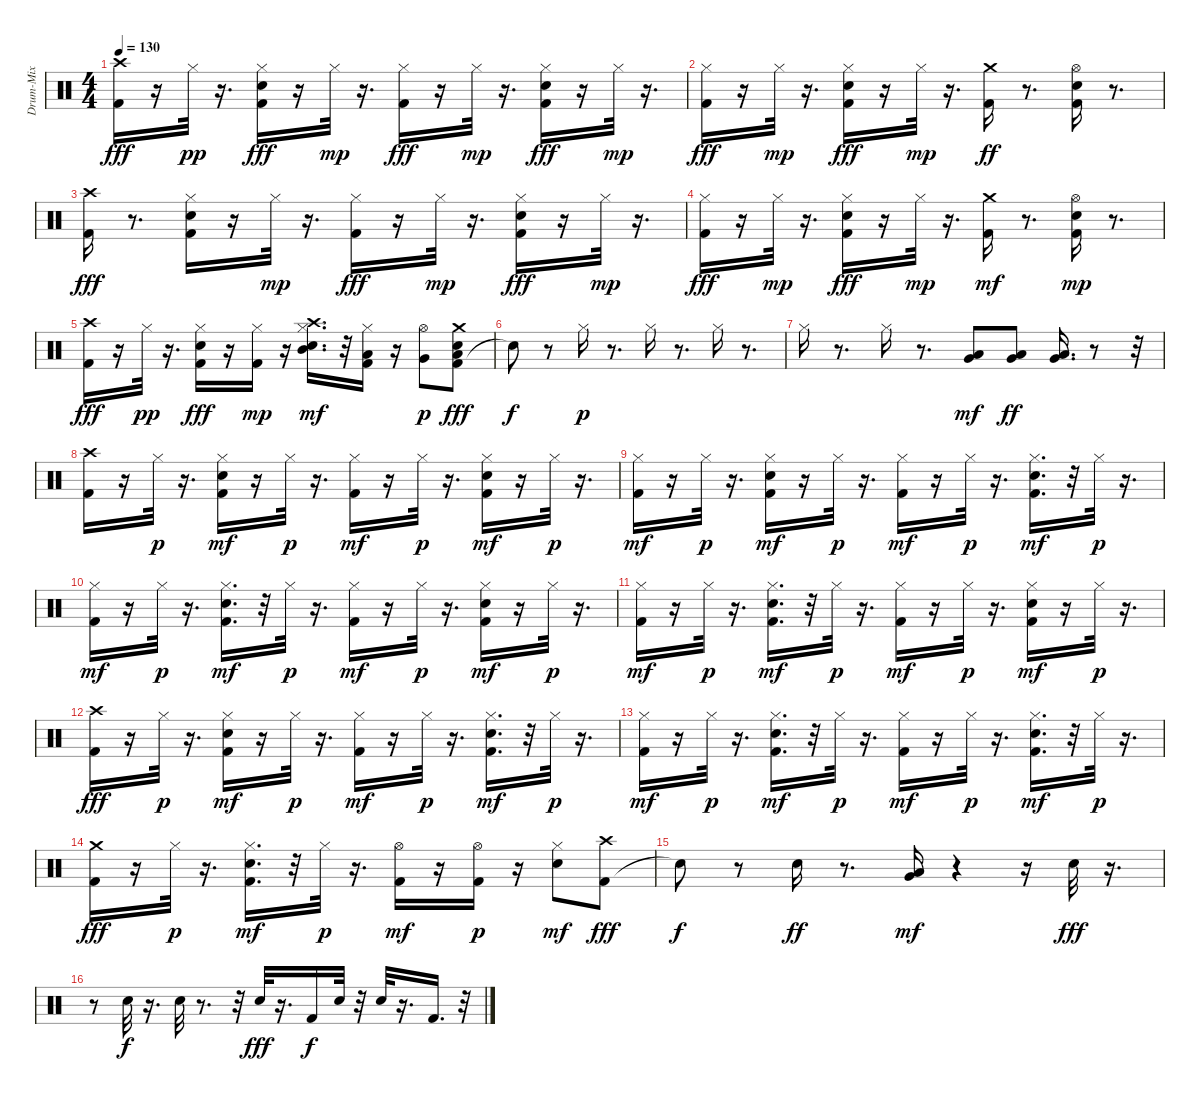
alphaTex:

\track ("Drum-Mix" "Drum-Mix") {instrument percussion}
\staff {score}
\articulation defaults
\ts (4 4)
\tempo 130
\clef neutral
\ks c
("Kick (hit) 2" "Crash high (hit)").16{dy fff} r.16 "Hi-Hat (closed)".32{dy pp} r.16{d} ("Kick (hit) 2" "Snare (hit) 2" "Hi-Hat (closed)").16{dy fff} r.16 "Hi-Hat (closed)".32{dy mp} r.16{d} ("Kick (hit) 2" "Hi-Hat (closed)").16{dy fff} r.16 "Hi-Hat (closed)".32{dy mp} r.16{d} ("Kick (hit) 2" "Snare (hit) 2" "Hi-Hat (closed)").16{dy fff} r.16 "Hi-Hat (closed)".32{dy mp} r.16{d} |
("Kick (hit) 2" "Hi-Hat (closed)").16{dy fff} r.16 "Hi-Hat (closed)".32{dy mp} r.16{d} ("Kick (hit) 2" "Snare (hit) 2" "Hi-Hat (closed)").16{dy fff} r.16 "Hi-Hat (closed)".32{dy mp} r.16{d} ("Kick (hit) 2" "Crash medium (hit)").16{dy ff} r.8{d} ("Kick (hit) 2" "Snare (hit) 2" "Hi-Hat (open)").16 r.8{d} |
("Kick (hit) 2" "Crash high (hit)").16{dy fff} r.8{d} ("Kick (hit) 2" "Snare (hit) 2" "Hi-Hat (closed)").16 r.16 "Hi-Hat (closed)".32{dy mp} r.16{d} ("Kick (hit) 2" "Hi-Hat (closed)").16{dy fff} r.16 "Hi-Hat (closed)".32{dy mp} r.16{d} ("Kick (hit) 2" "Snare (hit) 2" "Hi-Hat (closed)").16{dy fff} r.16 "Hi-Hat (closed)".32{dy mp} r.16{d} |
("Kick (hit) 2" "Hi-Hat (closed)").16{dy fff} r.16 "Hi-Hat (closed)".32{dy mp} r.16{d} ("Kick (hit) 2" "Snare (hit) 2" "Hi-Hat (closed)").16{dy fff} r.16 "Hi-Hat (closed)".32{dy mp} r.16{d} ("Kick (hit) 2" "Crash medium (hit)").16{dy mf} r.8{d} ("Kick (hit) 2" "Snare (hit) 2" "Hi-Hat (open)").16{dy mp} r.8{d} |
("Kick (hit) 2" "Crash high (hit)").16{dy fff} r.16 "Hi-Hat (closed)".32{dy pp} r.16{d} ("Kick (hit) 2" "Snare (hit) 2" "Hi-Hat (closed)").16{dy fff} r.16 ("Kick (hit) 2" "Hi-Hat (closed)").16{dy mp} r.16 ("Snare (hit) 2" "Hi-Hat (closed)" "Mid Tom (hit)" "Crash high (hit)").16{d dy mf} r.32 ("Kick (hit) 2" "Hi-Hat (closed)" "Low Tom (hit)").16 r.16 ("Very Low Tom (hit)" "Hi-Hat (open)").8{dy p} ("Kick (hit) 2" "Snare (hit) 2" "Low Floor Tom (hit)" "Crash medium (hit)").8{dy fff} |
"Snare (hit)"{t}.8{dy f} r.8 "Hi-Hat (closed)".16{dy p} r.8{d} "Hi-Hat (closed)".16 r.8{d} "Hi-Hat (closed)".16 r.8{d} |
"Hi-Hat (closed)".16 r.8{d} "Hi-Hat (closed)".16 r.8{d} ("Low Floor Tom (hit)" "Very Low Tom (hit)").8{dy mf} ("Low Floor Tom (hit)" "Very Low Tom (hit)").8{dy ff} ("Low Floor Tom (hit)" "Very Low Tom (hit)").16{d} r.8 r.32 |
("Kick (hit) 2" "Crash high (hit)").16 r.16 "Hi-Hat (closed)".32{dy p} r.16{d} ("Kick (hit) 2" "Snare (hit) 2" "Hi-Hat (closed)").16{dy mf} r.16 "Hi-Hat (closed)".32{dy p} r.16{d} ("Kick (hit) 2" "Hi-Hat (closed)").16{dy mf} r.16 "Hi-Hat (closed)".32{dy p} r.16{d} ("Kick (hit) 2" "Snare (hit) 2" "Hi-Hat (closed)").16{dy mf} r.16 "Hi-Hat (closed)".32{dy p} r.16{d} |
("Kick (hit) 2" "Hi-Hat (closed)").16{dy mf} r.16 "Hi-Hat (closed)".32{dy p} r.16{d} ("Kick (hit) 2" "Snare (hit) 2" "Hi-Hat (closed)").16{dy mf} r.16 "Hi-Hat (closed)".32{dy p} r.16{d} ("Kick (hit) 2" "Hi-Hat (closed)").16{dy mf} r.16 "Hi-Hat (closed)".32{dy p} r.16{d} ("Kick (hit) 2" "Snare (hit) 2" "Hi-Hat (closed)").16{d dy mf} r.32 "Hi-Hat (closed)".32{dy p} r.16{d} |
("Kick (hit) 2" "Hi-Hat (closed)").16{dy mf} r.16 "Hi-Hat (closed)".32{dy p} r.16{d} ("Kick (hit) 2" "Snare (hit) 2" "Hi-Hat (closed)").16{d dy mf} r.32 "Hi-Hat (closed)".32{dy p} r.16{d} ("Kick (hit) 2" "Hi-Hat (closed)").16{dy mf} r.16 "Hi-Hat (closed)".32{dy p} r.16{d} ("Kick (hit) 2" "Snare (hit) 2" "Hi-Hat (closed)").16{dy mf} r.16 "Hi-Hat (closed)".32{dy p} r.16{d} |
("Kick (hit) 2" "Hi-Hat (closed)").16{dy mf} r.16 "Hi-Hat (closed)".32{dy p} r.16{d} ("Kick (hit) 2" "Snare (hit) 2" "Hi-Hat (closed)").16{d dy mf} r.32 "Hi-Hat (closed)".32{dy p} r.16{d} ("Kick (hit) 2" "Hi-Hat (closed)").16{dy mf} r.16 "Hi-Hat (closed)".32{dy p} r.16{d} ("Kick (hit) 2" "Snare (hit) 2" "Hi-Hat (closed)").16{dy mf} r.16 "Hi-Hat (closed)".32{dy p} r.16{d} |
("Kick (hit) 2" "Crash high (hit)").16{dy fff} r.16 "Hi-Hat (closed)".32{dy p} r.16{d} ("Kick (hit) 2" "Snare (hit) 2" "Hi-Hat (closed)").16{dy mf} r.16 "Hi-Hat (closed)".32{dy p} r.16{d} ("Kick (hit) 2" "Hi-Hat (closed)").16{dy mf} r.16 "Hi-Hat (closed)".32{dy p} r.16{d} ("Kick (hit) 2" "Snare (hit) 2" "Hi-Hat (closed)").16{d dy mf} r.32 "Hi-Hat (closed)".32{dy p} r.16{d} |
("Kick (hit) 2" "Hi-Hat (closed)").16{dy mf} r.16 "Hi-Hat (closed)".32{dy p} r.16{d} ("Kick (hit) 2" "Snare (hit) 2" "Hi-Hat (closed)").16{d dy mf} r.32 "Hi-Hat (closed)".32{dy p} r.16{d} ("Kick (hit) 2" "Hi-Hat (closed)").16{dy mf} r.16 "Hi-Hat (closed)".32{dy p} r.16{d} ("Kick (hit) 2" "Snare (hit) 2" "Hi-Hat (closed)").16{d dy mf} r.32 "Hi-Hat (closed)".32{dy p} r.16{d} |
("Kick (hit) 2" "Crash medium (hit)").16{dy fff} r.16 "Hi-Hat (closed)".32{dy p} r.16{d} ("Kick (hit) 2" "Snare (hit) 2" "Hi-Hat (closed)").16{d dy mf} r.32 "Hi-Hat (closed)".32{dy p} r.16{d} ("Kick (hit) 2" "Hi-Hat (open)").16{dy mf} r.16 ("Kick (hit) 2" "Hi-Hat (open)").16{dy p} r.16 ("Snare (hit) 2" "Hi-Hat (closed)").8{dy mf} ("Kick (hit) 2" "Crash high (hit)").8{dy fff} |
"Snare (hit)"{t}.8{dy f} r.8 "Snare (hit) 2".16{dy ff} r.8{d} ("Very Low Tom (hit)" "Low Tom (hit)").16{dy mf} r.4 r.16 "Snare (hit) 2".32{dy fff} r.16{d} |
r.8 "Snare (hit) 2".32{dy f} r.16{d} "Snare (hit) 2".32 r.8{d} r.32 "Snare (hit) 2".32{dy fff} r.16{d} "Kick (hit) 2".16{dy f} "Snare (hit) 2".32 r.32 "Snare (hit) 2".32 r.16{d} "Kick (hit) 2".16{d} r.32
